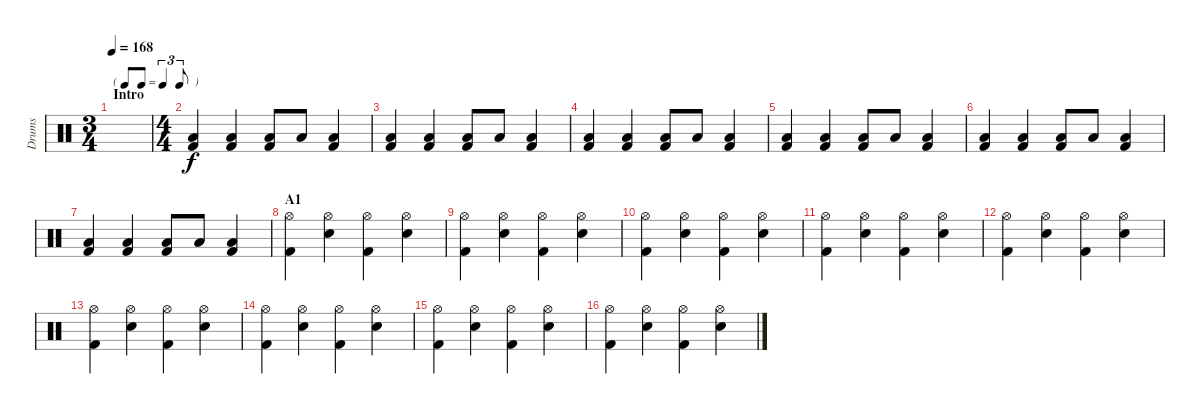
\track ("Drums" "Drums") {instrument percussion}
\staff {score}
\articulation defaults
\ts (3 4)
\tf triplet8th
\section ("" "Intro")
\tempo 168
\clef neutral
\ks c
|
\ts (4 4)
("Low Tom (hit)" "Kick (hit) 2").4 ("Low Tom (hit)" "Kick (hit) 2").4 ("Low Tom (hit)" "Kick (hit) 2").8 "Low Tom (hit)".8 ("Low Tom (hit)" "Kick (hit) 2").4 |
("Low Tom (hit)" "Kick (hit) 2").4 ("Low Tom (hit)" "Kick (hit) 2").4 ("Low Tom (hit)" "Kick (hit) 2").8 "Low Tom (hit)".8 ("Low Tom (hit)" "Kick (hit) 2").4 |
("Low Tom (hit)" "Kick (hit) 2").4 ("Low Tom (hit)" "Kick (hit) 2").4 ("Low Tom (hit)" "Kick (hit) 2").8 "Low Tom (hit)".8 ("Low Tom (hit)" "Kick (hit) 2").4 |
("Low Tom (hit)" "Kick (hit) 2").4 ("Low Tom (hit)" "Kick (hit) 2").4 ("Low Tom (hit)" "Kick (hit) 2").8 "Low Tom (hit)".8 ("Low Tom (hit)" "Kick (hit) 2").4 |
("Low Tom (hit)" "Kick (hit) 2").4 ("Low Tom (hit)" "Kick (hit) 2").4 ("Low Tom (hit)" "Kick (hit) 2").8 "Low Tom (hit)".8 ("Low Tom (hit)" "Kick (hit) 2").4 |
("Low Tom (hit)" "Kick (hit) 2").4 ("Low Tom (hit)" "Kick (hit) 2").4 ("Low Tom (hit)" "Kick (hit) 2").8 "Low Tom (hit)".8 ("Low Tom (hit)" "Kick (hit) 2").4 |
\section ("" "A1")
("Hi-Hat (open)" "Kick (hit) 2").4 ("Hi-Hat (open)" "Snare (hit) 2").4 ("Hi-Hat (open)" "Kick (hit) 2").4 ("Hi-Hat (open)" "Snare (hit) 2").4 |
("Hi-Hat (open)" "Kick (hit) 2").4 ("Hi-Hat (open)" "Snare (hit) 2").4 ("Hi-Hat (open)" "Kick (hit) 2").4 ("Hi-Hat (open)" "Snare (hit) 2").4 |
("Hi-Hat (open)" "Kick (hit) 2").4 ("Hi-Hat (open)" "Snare (hit) 2").4 ("Hi-Hat (open)" "Kick (hit) 2").4 ("Hi-Hat (open)" "Snare (hit) 2").4 |
("Hi-Hat (open)" "Kick (hit) 2").4 ("Hi-Hat (open)" "Snare (hit) 2").4 ("Hi-Hat (open)" "Kick (hit) 2").4 ("Hi-Hat (open)" "Snare (hit) 2").4 |
("Hi-Hat (open)" "Kick (hit) 2").4 ("Hi-Hat (open)" "Snare (hit) 2").4 ("Hi-Hat (open)" "Kick (hit) 2").4 ("Hi-Hat (open)" "Snare (hit) 2").4 |
("Hi-Hat (open)" "Kick (hit) 2").4 ("Hi-Hat (open)" "Snare (hit) 2").4 ("Hi-Hat (open)" "Kick (hit) 2").4 ("Hi-Hat (open)" "Snare (hit) 2").4 |
("Hi-Hat (open)" "Kick (hit) 2").4 ("Hi-Hat (open)" "Snare (hit) 2").4 ("Hi-Hat (open)" "Kick (hit) 2").4 ("Hi-Hat (open)" "Snare (hit) 2").4 |
("Hi-Hat (open)" "Kick (hit) 2").4 ("Hi-Hat (open)" "Snare (hit) 2").4 ("Hi-Hat (open)" "Kick (hit) 2").4 ("Hi-Hat (open)" "Snare (hit) 2").4 |
("Hi-Hat (open)" "Kick (hit) 2").4 ("Hi-Hat (open)" "Snare (hit) 2").4 ("Hi-Hat (open)" "Kick (hit) 2").4 ("Hi-Hat (open)" "Snare (hit) 2").4
